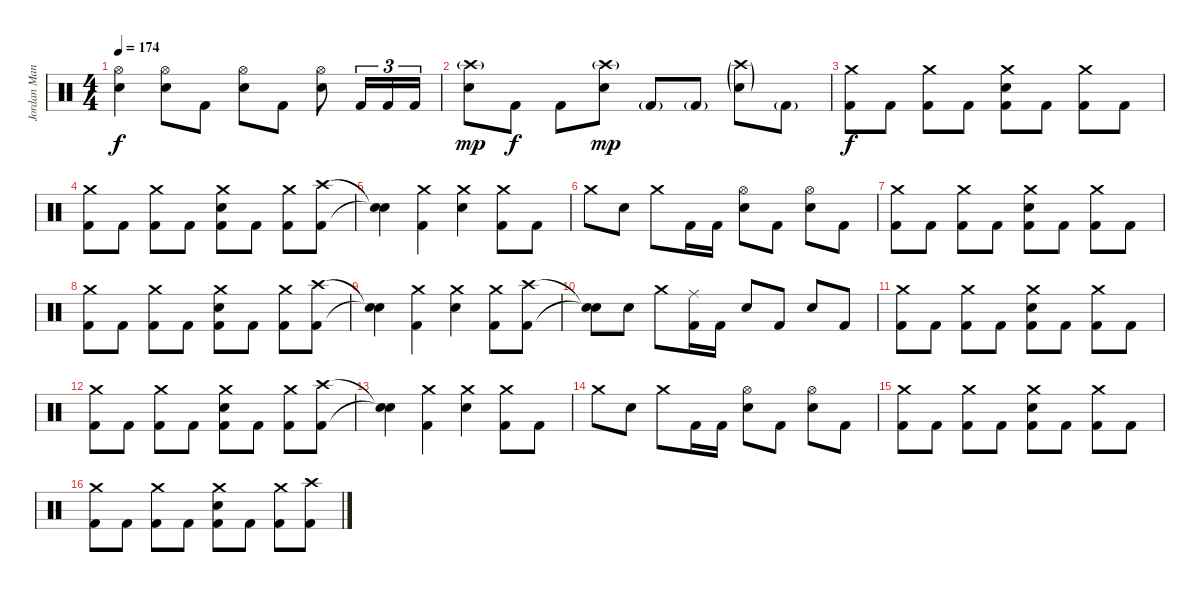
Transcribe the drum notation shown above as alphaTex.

\track ("Jordan Manchino (Drums)" "Jordan Man") {instrument percussion}
\staff {score}
\articulation defaults
\ts (4 4)
\tempo 174
\clef neutral
\ks c
("Hi-Hat (open)" "Snare (hit) 2").4{dy f} ("Hi-Hat (open)" "Snare (hit) 2").8 "Kick (hit) 2".8 ("Hi-Hat (open)" "Snare (hit) 2").8 "Kick (hit) 2".8 ("Hi-Hat (open)" "Snare (hit) 2").8 "Kick (hit) 2".16{tu (3 2)} "Kick (hit) 2".16{tu (3 2)} "Kick (hit) 2".16{tu (3 2)} |
("Crash high (hit)"{g} "Snare (hit) 2").8{dy mp} "Kick (hit) 2".8{dy f} "Kick (hit) 2".8 ("Crash high (hit)"{g} "Snare (hit) 2").8{dy mp} "Kick (hit) 2"{g}.8 "Kick (hit) 2"{g}.8 ("Crash high (hit)"{g} "Snare (hit) 2"{g}).8 "Kick (hit) 2"{g}.8 |
("Crash medium (hit)" "Kick (hit) 2").8{dy f} "Kick (hit) 2".8 ("Crash medium (hit)" "Kick (hit) 2").8 "Kick (hit) 2".8 ("Snare (hit) 2" "Crash medium (hit)" "Kick (hit) 2").8 "Kick (hit) 2".8 ("Crash medium (hit)" "Kick (hit) 2").8 "Kick (hit) 2".8 |
("Crash medium (hit)" "Kick (hit) 2").8 "Kick (hit) 2".8 ("Crash medium (hit)" "Kick (hit) 2").8 "Kick (hit) 2".8 ("Snare (hit) 2" "Crash medium (hit)" "Kick (hit) 2").8 "Kick (hit) 2".8 ("Crash medium (hit)" "Kick (hit) 2").8 ("Crash high (hit)" "Kick (hit) 2").8 |
("Snare (hit)"{t} "Snare (hit)"{t}).4 ("Crash medium (hit)" "Kick (hit) 2").4 ("Crash medium (hit)" "Snare (hit) 2").4 ("Crash medium (hit)" "Kick (hit) 2").8 "Kick (hit) 2".8 |
"Crash medium (hit)".8 "Snare (hit) 2".8 "Crash medium (hit)".8 "Kick (hit) 2".16 "Kick (hit) 2".16 ("Hi-Hat (open)" "Snare (hit) 2").8 "Kick (hit) 2".8 ("Hi-Hat (open)" "Snare (hit) 2").8 "Kick (hit) 2".8 |
("Crash medium (hit)" "Kick (hit) 2").8 "Kick (hit) 2".8 ("Crash medium (hit)" "Kick (hit) 2").8 "Kick (hit) 2".8 ("Snare (hit) 2" "Crash medium (hit)" "Kick (hit) 2").8 "Kick (hit) 2".8 ("Crash medium (hit)" "Kick (hit) 2").8 "Kick (hit) 2".8 |
("Crash medium (hit)" "Kick (hit) 2").8 "Kick (hit) 2".8 ("Crash medium (hit)" "Kick (hit) 2").8 "Kick (hit) 2".8 ("Snare (hit) 2" "Crash medium (hit)" "Kick (hit) 2").8 "Kick (hit) 2".8 ("Crash medium (hit)" "Kick (hit) 2").8 ("Crash high (hit)" "Kick (hit) 2").8 |
("Snare (hit)"{t} "Snare (hit)"{t}).4 ("Crash medium (hit)" "Kick (hit) 2").4 ("Crash medium (hit)" "Snare (hit) 2").4 ("Crash medium (hit)" "Kick (hit) 2").8 ("Crash high (hit)" "Kick (hit) 2").8 |
("Snare (hit)"{t} "Snare (hit)"{t}).8 "Snare (hit) 2".8 "Crash medium (hit)".8 ("Ride (middle)" "Kick (hit) 2").16 "Kick (hit) 2".16 "Snare (hit) 2".8 "Kick (hit) 2".8 "Snare (hit) 2".8 "Kick (hit) 2".8 |
("Crash medium (hit)" "Kick (hit) 2").8 "Kick (hit) 2".8 ("Crash medium (hit)" "Kick (hit) 2").8 "Kick (hit) 2".8 ("Snare (hit) 2" "Crash medium (hit)" "Kick (hit) 2").8 "Kick (hit) 2".8 ("Crash medium (hit)" "Kick (hit) 2").8 "Kick (hit) 2".8 |
("Crash medium (hit)" "Kick (hit) 2").8 "Kick (hit) 2".8 ("Crash medium (hit)" "Kick (hit) 2").8 "Kick (hit) 2".8 ("Snare (hit) 2" "Crash medium (hit)" "Kick (hit) 2").8 "Kick (hit) 2".8 ("Crash medium (hit)" "Kick (hit) 2").8 ("Crash high (hit)" "Kick (hit) 2").8 |
("Snare (hit)"{t} "Snare (hit)"{t}).4 ("Crash medium (hit)" "Kick (hit) 2").4 ("Crash medium (hit)" "Snare (hit) 2").4 ("Crash medium (hit)" "Kick (hit) 2").8 "Kick (hit) 2".8 |
"Crash medium (hit)".8 "Snare (hit) 2".8 "Crash medium (hit)".8 "Kick (hit) 2".16 "Kick (hit) 2".16 ("Hi-Hat (open)" "Snare (hit) 2").8 "Kick (hit) 2".8 ("Hi-Hat (open)" "Snare (hit) 2").8 "Kick (hit) 2".8 |
("Crash medium (hit)" "Kick (hit) 2").8 "Kick (hit) 2".8 ("Crash medium (hit)" "Kick (hit) 2").8 "Kick (hit) 2".8 ("Snare (hit) 2" "Crash medium (hit)" "Kick (hit) 2").8 "Kick (hit) 2".8 ("Crash medium (hit)" "Kick (hit) 2").8 "Kick (hit) 2".8 |
("Crash medium (hit)" "Kick (hit) 2").8 "Kick (hit) 2".8 ("Crash medium (hit)" "Kick (hit) 2").8 "Kick (hit) 2".8 ("Snare (hit) 2" "Crash medium (hit)" "Kick (hit) 2").8 "Kick (hit) 2".8 ("Crash medium (hit)" "Kick (hit) 2").8 ("Crash high (hit)" "Kick (hit) 2").8
